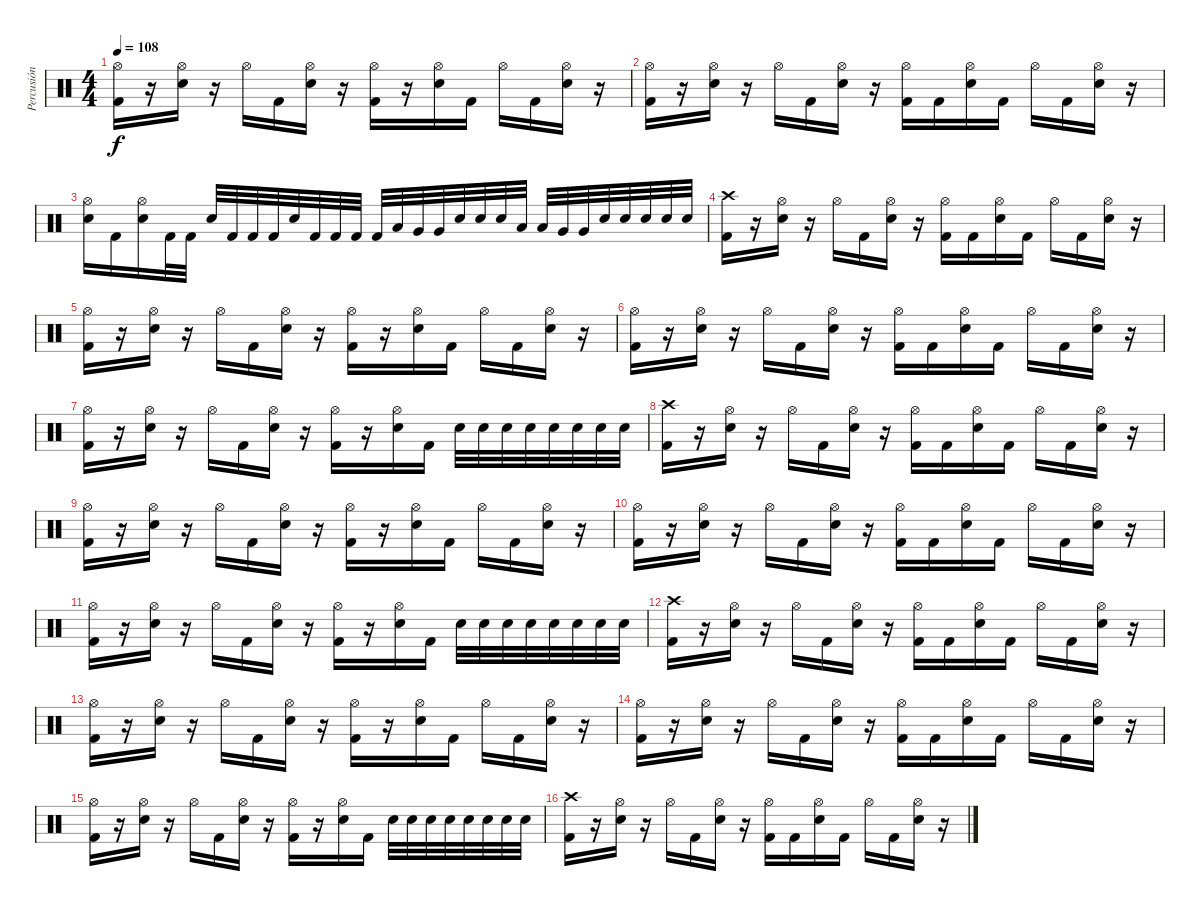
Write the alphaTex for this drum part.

\track ("Percusión" "Percusión") {instrument percussion}
\staff {score}
\articulation defaults
\ts (4 4)
\tempo 108
\clef neutral
\ks c
("Hi-Hat (open)" "Kick (hit) 2").16{dy f} r.16 ("Hi-Hat (open)" "Electric Snare (hit)").16 r.16 "Hi-Hat (open)".16 "Kick (hit) 2".16 ("Hi-Hat (open)" "Electric Snare (hit)").16 r.16 ("Hi-Hat (open)" "Kick (hit) 2").16 r.16 ("Hi-Hat (open)" "Electric Snare (hit)").16 "Kick (hit) 2".16 "Hi-Hat (open)".16 "Kick (hit) 2".16 ("Hi-Hat (open)" "Electric Snare (hit)").16 r.16 |
("Hi-Hat (open)" "Kick (hit) 2").16 r.16 ("Hi-Hat (open)" "Electric Snare (hit)").16 r.16 "Hi-Hat (open)".16 "Kick (hit) 2".16 ("Hi-Hat (open)" "Electric Snare (hit)").16 r.16 ("Hi-Hat (open)" "Kick (hit) 2").16 "Kick (hit) 2".16 ("Hi-Hat (open)" "Electric Snare (hit)").16 "Kick (hit) 2".16 "Hi-Hat (open)".16 "Kick (hit) 2".16 ("Hi-Hat (open)" "Electric Snare (hit)").16 r.16 |
("Hi-Hat (open)" "Electric Snare (hit)").16 "Kick (hit) 2".16 ("Hi-Hat (open)" "Electric Snare (hit)").16 "Kick (hit) 2".32 "Kick (hit) 2".32 "Electric Snare (hit)".32 "Kick (hit) 2".32 "Kick (hit) 2".32 "Kick (hit) 2".32 "Electric Snare (hit)".32 "Kick (hit) 2".32 "Kick (hit) 2".32 "Kick (hit) 2".32 "Kick (hit) 2".32 "Low Tom (hit)".32 "Very Low Tom (hit)".32 "Very Low Tom (hit)".32 "Electric Snare (hit)".32 "Electric Snare (hit)".32 "Electric Snare (hit)".32 "Low Floor Tom (hit)".32 "Low Floor Tom (hit)".32 "Very Low Tom (hit)".32 "Very Low Tom (hit)".32 "Electric Snare (hit)".32 "Electric Snare (hit)".32 "Electric Snare (hit)".32 "Electric Snare (hit)".32 "Electric Snare (hit)".32 |
("Crash high (hit)" "Kick (hit) 2").16 r.16 ("Hi-Hat (open)" "Electric Snare (hit)").16 r.16 "Hi-Hat (open)".16 "Kick (hit) 2".16 ("Hi-Hat (open)" "Electric Snare (hit)").16 r.16 ("Hi-Hat (open)" "Kick (hit) 2").16 "Kick (hit) 2".16 ("Hi-Hat (open)" "Electric Snare (hit)").16 "Kick (hit) 2".16 "Hi-Hat (open)".16 "Kick (hit) 2".16 ("Hi-Hat (open)" "Electric Snare (hit)").16 r.16 |
("Hi-Hat (open)" "Kick (hit) 2").16 r.16 ("Hi-Hat (open)" "Electric Snare (hit)").16 r.16 "Hi-Hat (open)".16 "Kick (hit) 2".16 ("Hi-Hat (open)" "Electric Snare (hit)").16 r.16 ("Hi-Hat (open)" "Kick (hit) 2").16 r.16 ("Hi-Hat (open)" "Electric Snare (hit)").16 "Kick (hit) 2".16 "Hi-Hat (open)".16 "Kick (hit) 2".16 ("Hi-Hat (open)" "Electric Snare (hit)").16 r.16 |
("Hi-Hat (open)" "Kick (hit) 2").16 r.16 ("Hi-Hat (open)" "Electric Snare (hit)").16 r.16 "Hi-Hat (open)".16 "Kick (hit) 2".16 ("Hi-Hat (open)" "Electric Snare (hit)").16 r.16 ("Hi-Hat (open)" "Kick (hit) 2").16 "Kick (hit) 2".16 ("Hi-Hat (open)" "Electric Snare (hit)").16 "Kick (hit) 2".16 "Hi-Hat (open)".16 "Kick (hit) 2".16 ("Hi-Hat (open)" "Electric Snare (hit)").16 r.16 |
("Hi-Hat (open)" "Kick (hit) 2").16 r.16 ("Hi-Hat (open)" "Electric Snare (hit)").16 r.16 "Hi-Hat (open)".16 "Kick (hit) 2".16 ("Hi-Hat (open)" "Electric Snare (hit)").16 r.16 ("Hi-Hat (open)" "Kick (hit) 2").16 r.16 ("Hi-Hat (open)" "Electric Snare (hit)").16 "Kick (hit) 2".16 "Electric Snare (hit)".32 "Electric Snare (hit)".32 "Electric Snare (hit)".32 "Electric Snare (hit)".32 "Electric Snare (hit)".32 "Electric Snare (hit)".32 "Electric Snare (hit)".32 "Electric Snare (hit)".32 |
("Crash high (hit)" "Kick (hit) 2").16 r.16 ("Hi-Hat (open)" "Electric Snare (hit)").16 r.16 "Hi-Hat (open)".16 "Kick (hit) 2".16 ("Hi-Hat (open)" "Electric Snare (hit)").16 r.16 ("Hi-Hat (open)" "Kick (hit) 2").16 "Kick (hit) 2".16 ("Hi-Hat (open)" "Electric Snare (hit)").16 "Kick (hit) 2".16 "Hi-Hat (open)".16 "Kick (hit) 2".16 ("Hi-Hat (open)" "Electric Snare (hit)").16 r.16 |
("Hi-Hat (open)" "Kick (hit) 2").16 r.16 ("Hi-Hat (open)" "Electric Snare (hit)").16 r.16 "Hi-Hat (open)".16 "Kick (hit) 2".16 ("Hi-Hat (open)" "Electric Snare (hit)").16 r.16 ("Hi-Hat (open)" "Kick (hit) 2").16 r.16 ("Hi-Hat (open)" "Electric Snare (hit)").16 "Kick (hit) 2".16 "Hi-Hat (open)".16 "Kick (hit) 2".16 ("Hi-Hat (open)" "Electric Snare (hit)").16 r.16 |
("Hi-Hat (open)" "Kick (hit) 2").16 r.16 ("Hi-Hat (open)" "Electric Snare (hit)").16 r.16 "Hi-Hat (open)".16 "Kick (hit) 2".16 ("Hi-Hat (open)" "Electric Snare (hit)").16 r.16 ("Hi-Hat (open)" "Kick (hit) 2").16 "Kick (hit) 2".16 ("Hi-Hat (open)" "Electric Snare (hit)").16 "Kick (hit) 2".16 "Hi-Hat (open)".16 "Kick (hit) 2".16 ("Hi-Hat (open)" "Electric Snare (hit)").16 r.16 |
("Hi-Hat (open)" "Kick (hit) 2").16 r.16 ("Hi-Hat (open)" "Electric Snare (hit)").16 r.16 "Hi-Hat (open)".16 "Kick (hit) 2".16 ("Hi-Hat (open)" "Electric Snare (hit)").16 r.16 ("Hi-Hat (open)" "Kick (hit) 2").16 r.16 ("Hi-Hat (open)" "Electric Snare (hit)").16 "Kick (hit) 2".16 "Electric Snare (hit)".32 "Electric Snare (hit)".32 "Electric Snare (hit)".32 "Electric Snare (hit)".32 "Electric Snare (hit)".32 "Electric Snare (hit)".32 "Electric Snare (hit)".32 "Electric Snare (hit)".32 |
("Crash high (hit)" "Kick (hit) 2").16 r.16 ("Hi-Hat (open)" "Electric Snare (hit)").16 r.16 "Hi-Hat (open)".16 "Kick (hit) 2".16 ("Hi-Hat (open)" "Electric Snare (hit)").16 r.16 ("Hi-Hat (open)" "Kick (hit) 2").16 "Kick (hit) 2".16 ("Hi-Hat (open)" "Electric Snare (hit)").16 "Kick (hit) 2".16 "Hi-Hat (open)".16 "Kick (hit) 2".16 ("Hi-Hat (open)" "Electric Snare (hit)").16 r.16 |
("Hi-Hat (open)" "Kick (hit) 2").16 r.16 ("Hi-Hat (open)" "Electric Snare (hit)").16 r.16 "Hi-Hat (open)".16 "Kick (hit) 2".16 ("Hi-Hat (open)" "Electric Snare (hit)").16 r.16 ("Hi-Hat (open)" "Kick (hit) 2").16 r.16 ("Hi-Hat (open)" "Electric Snare (hit)").16 "Kick (hit) 2".16 "Hi-Hat (open)".16 "Kick (hit) 2".16 ("Hi-Hat (open)" "Electric Snare (hit)").16 r.16 |
("Hi-Hat (open)" "Kick (hit) 2").16 r.16 ("Hi-Hat (open)" "Electric Snare (hit)").16 r.16 "Hi-Hat (open)".16 "Kick (hit) 2".16 ("Hi-Hat (open)" "Electric Snare (hit)").16 r.16 ("Hi-Hat (open)" "Kick (hit) 2").16 "Kick (hit) 2".16 ("Hi-Hat (open)" "Electric Snare (hit)").16 "Kick (hit) 2".16 "Hi-Hat (open)".16 "Kick (hit) 2".16 ("Hi-Hat (open)" "Electric Snare (hit)").16 r.16 |
("Hi-Hat (open)" "Kick (hit) 2").16 r.16 ("Hi-Hat (open)" "Electric Snare (hit)").16 r.16 "Hi-Hat (open)".16 "Kick (hit) 2".16 ("Hi-Hat (open)" "Electric Snare (hit)").16 r.16 ("Hi-Hat (open)" "Kick (hit) 2").16 r.16 ("Hi-Hat (open)" "Electric Snare (hit)").16 "Kick (hit) 2".16 "Electric Snare (hit)".32 "Electric Snare (hit)".32 "Electric Snare (hit)".32 "Electric Snare (hit)".32 "Electric Snare (hit)".32 "Electric Snare (hit)".32 "Electric Snare (hit)".32 "Electric Snare (hit)".32 |
("Crash high (hit)" "Kick (hit) 2").16 r.16 ("Hi-Hat (open)" "Electric Snare (hit)").16 r.16 "Hi-Hat (open)".16 "Kick (hit) 2".16 ("Hi-Hat (open)" "Electric Snare (hit)").16 r.16 ("Hi-Hat (open)" "Kick (hit) 2").16 "Kick (hit) 2".16 ("Hi-Hat (open)" "Electric Snare (hit)").16 "Kick (hit) 2".16 "Hi-Hat (open)".16 "Kick (hit) 2".16 ("Hi-Hat (open)" "Electric Snare (hit)").16 r.16
